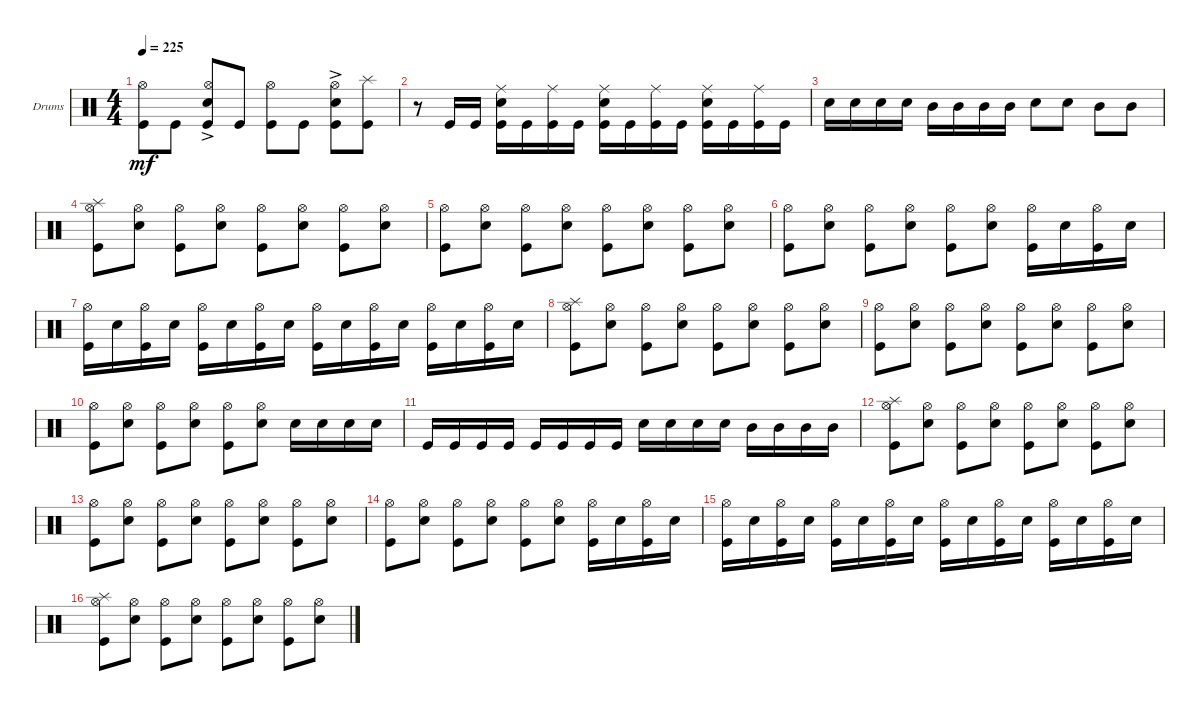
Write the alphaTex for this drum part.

\bracketExtendMode groupsimilarinstruments
\firstSystemTrackNameOrientation horizontal
\otherSystemsTrackNameOrientation horizontal
\track ("Drumkit" "Drums") {instrument percussion}
\staff {score}
\articulation defaults
\ts (4 4)
\tempo 225
\clef neutral
\ks c
("Kick (hit)" "Hi-Hat (open)").8{dy mf} "Kick (hit)".8 ("Snare (hit) 2"{ac} "Kick (hit)" "Hi-Hat (open)").8 "Kick (hit)".8 ("Kick (hit)" "Hi-Hat (open)").8 "Kick (hit)".8 ("Snare (hit) 2"{ac} "Kick (hit)" "Hi-Hat (open)").8 ("Kick (hit)" "Splash (hit)").8 |
r.8 "Kick (hit)".16 "Kick (hit)".16 ("Snare (hit) 2" "Kick (hit)" "Ride (middle)").16 "Kick (hit)".16 ("Kick (hit)" "Ride (middle)").16 "Kick (hit)".16 ("Snare (hit) 2" "Kick (hit)" "Ride (middle)").16 "Kick (hit)".16 ("Kick (hit)" "Ride (middle)").16 "Kick (hit)".16 ("Snare (hit) 2" "Kick (hit)" "Ride (middle)").16 "Kick (hit)".16 ("Kick (hit)" "Ride (middle)").16 "Kick (hit)".16 |
"Snare (hit) 2".16 "Snare (hit) 2".16 "Snare (hit) 2".16 "Snare (hit) 2".16 "Mid Tom (hit)".16 "Mid Tom (hit)".16 "Mid Tom (hit)".16 "Mid Tom (hit)".16 "Snare (hit) 2".8 "Snare (hit) 2".8 "Mid Tom (hit)".8 "Mid Tom (hit)".8 |
("Kick (hit)" "Hi-Hat (open)" "Splash (hit)").8 ("Snare (hit) 2" "Hi-Hat (open)").8 ("Kick (hit)" "Hi-Hat (open)").8 ("Snare (hit) 2" "Hi-Hat (open)").8 ("Kick (hit)" "Hi-Hat (open)").8 ("Snare (hit) 2" "Hi-Hat (open)").8 ("Kick (hit)" "Hi-Hat (open)").8 ("Snare (hit) 2" "Hi-Hat (open)").8 |
("Kick (hit)" "Hi-Hat (open)").8 ("Snare (hit) 2" "Hi-Hat (open)").8 ("Kick (hit)" "Hi-Hat (open)").8 ("Snare (hit) 2" "Hi-Hat (open)").8 ("Kick (hit)" "Hi-Hat (open)").8 ("Snare (hit) 2" "Hi-Hat (open)").8 ("Kick (hit)" "Hi-Hat (open)").8 ("Snare (hit) 2" "Hi-Hat (open)").8 |
("Kick (hit)" "Hi-Hat (open)").8 ("Snare (hit) 2" "Hi-Hat (open)").8 ("Kick (hit)" "Hi-Hat (open)").8 ("Snare (hit) 2" "Hi-Hat (open)").8 ("Kick (hit)" "Hi-Hat (open)").8 ("Snare (hit) 2" "Hi-Hat (open)").8 ("Kick (hit)" "Hi-Hat (open)").16 "Snare (hit) 2".16 ("Kick (hit)" "Hi-Hat (open)").16 "Snare (hit) 2".16 |
("Kick (hit)" "Hi-Hat (open)").16 "Snare (hit) 2".16 ("Kick (hit)" "Hi-Hat (open)").16 "Snare (hit) 2".16 ("Kick (hit)" "Hi-Hat (open)").16 "Snare (hit) 2".16 ("Kick (hit)" "Hi-Hat (open)").16 "Snare (hit) 2".16 ("Kick (hit)" "Hi-Hat (open)").16 "Snare (hit) 2".16 ("Kick (hit)" "Hi-Hat (open)").16 "Snare (hit) 2".16 ("Kick (hit)" "Hi-Hat (open)").16 "Snare (hit) 2".16 ("Kick (hit)" "Hi-Hat (open)").16 "Snare (hit) 2".16 |
("Kick (hit)" "Hi-Hat (open)" "Splash (hit)").8 ("Snare (hit) 2" "Hi-Hat (open)").8 ("Kick (hit)" "Hi-Hat (open)").8 ("Snare (hit) 2" "Hi-Hat (open)").8 ("Kick (hit)" "Hi-Hat (open)").8 ("Snare (hit) 2" "Hi-Hat (open)").8 ("Kick (hit)" "Hi-Hat (open)").8 ("Snare (hit) 2" "Hi-Hat (open)").8 |
("Kick (hit)" "Hi-Hat (open)").8 ("Snare (hit) 2" "Hi-Hat (open)").8 ("Kick (hit)" "Hi-Hat (open)").8 ("Snare (hit) 2" "Hi-Hat (open)").8 ("Kick (hit)" "Hi-Hat (open)").8 ("Snare (hit) 2" "Hi-Hat (open)").8 ("Kick (hit)" "Hi-Hat (open)").8 ("Snare (hit) 2" "Hi-Hat (open)").8 |
("Kick (hit)" "Hi-Hat (open)").8 ("Snare (hit) 2" "Hi-Hat (open)").8 ("Kick (hit)" "Hi-Hat (open)").8 ("Snare (hit) 2" "Hi-Hat (open)").8 ("Kick (hit)" "Hi-Hat (open)").8 ("Snare (hit) 2" "Hi-Hat (open)").8 "Snare (hit) 2".16 "Snare (hit) 2".16 "Snare (hit) 2".16 "Snare (hit) 2".16 |
"Kick (hit)".16 "Kick (hit)".16 "Kick (hit)".16 "Kick (hit)".16 "Kick (hit)".16 "Kick (hit)".16 "Kick (hit)".16 "Kick (hit)".16 "Snare (hit) 2".16 "Snare (hit) 2".16 "Snare (hit) 2".16 "Snare (hit) 2".16 "Mid Tom (hit)".16 "Mid Tom (hit)".16 "Mid Tom (hit)".16 "Mid Tom (hit)".16 |
("Kick (hit)" "Hi-Hat (open)" "Splash (hit)").8 ("Snare (hit) 2" "Hi-Hat (open)").8 ("Kick (hit)" "Hi-Hat (open)").8 ("Snare (hit) 2" "Hi-Hat (open)").8 ("Kick (hit)" "Hi-Hat (open)").8 ("Snare (hit) 2" "Hi-Hat (open)").8 ("Kick (hit)" "Hi-Hat (open)").8 ("Snare (hit) 2" "Hi-Hat (open)").8 |
("Kick (hit)" "Hi-Hat (open)").8 ("Snare (hit) 2" "Hi-Hat (open)").8 ("Kick (hit)" "Hi-Hat (open)").8 ("Snare (hit) 2" "Hi-Hat (open)").8 ("Kick (hit)" "Hi-Hat (open)").8 ("Snare (hit) 2" "Hi-Hat (open)").8 ("Kick (hit)" "Hi-Hat (open)").8 ("Snare (hit) 2" "Hi-Hat (open)").8 |
("Kick (hit)" "Hi-Hat (open)").8 ("Snare (hit) 2" "Hi-Hat (open)").8 ("Kick (hit)" "Hi-Hat (open)").8 ("Snare (hit) 2" "Hi-Hat (open)").8 ("Kick (hit)" "Hi-Hat (open)").8 ("Snare (hit) 2" "Hi-Hat (open)").8 ("Kick (hit)" "Hi-Hat (open)").16 "Snare (hit) 2".16 ("Kick (hit)" "Hi-Hat (open)").16 "Snare (hit) 2".16 |
("Kick (hit)" "Hi-Hat (open)").16 "Snare (hit) 2".16 ("Kick (hit)" "Hi-Hat (open)").16 "Snare (hit) 2".16 ("Kick (hit)" "Hi-Hat (open)").16 "Snare (hit) 2".16 ("Kick (hit)" "Hi-Hat (open)").16 "Snare (hit) 2".16 ("Kick (hit)" "Hi-Hat (open)").16 "Snare (hit) 2".16 ("Kick (hit)" "Hi-Hat (open)").16 "Snare (hit) 2".16 ("Kick (hit)" "Hi-Hat (open)").16 "Snare (hit) 2".16 ("Kick (hit)" "Hi-Hat (open)").16 "Snare (hit) 2".16 |
("Kick (hit)" "Hi-Hat (open)" "Splash (hit)").8 ("Snare (hit) 2" "Hi-Hat (open)").8 ("Kick (hit)" "Hi-Hat (open)").8 ("Snare (hit) 2" "Hi-Hat (open)").8 ("Kick (hit)" "Hi-Hat (open)").8 ("Snare (hit) 2" "Hi-Hat (open)").8 ("Kick (hit)" "Hi-Hat (open)").8 ("Snare (hit) 2" "Hi-Hat (open)").8
